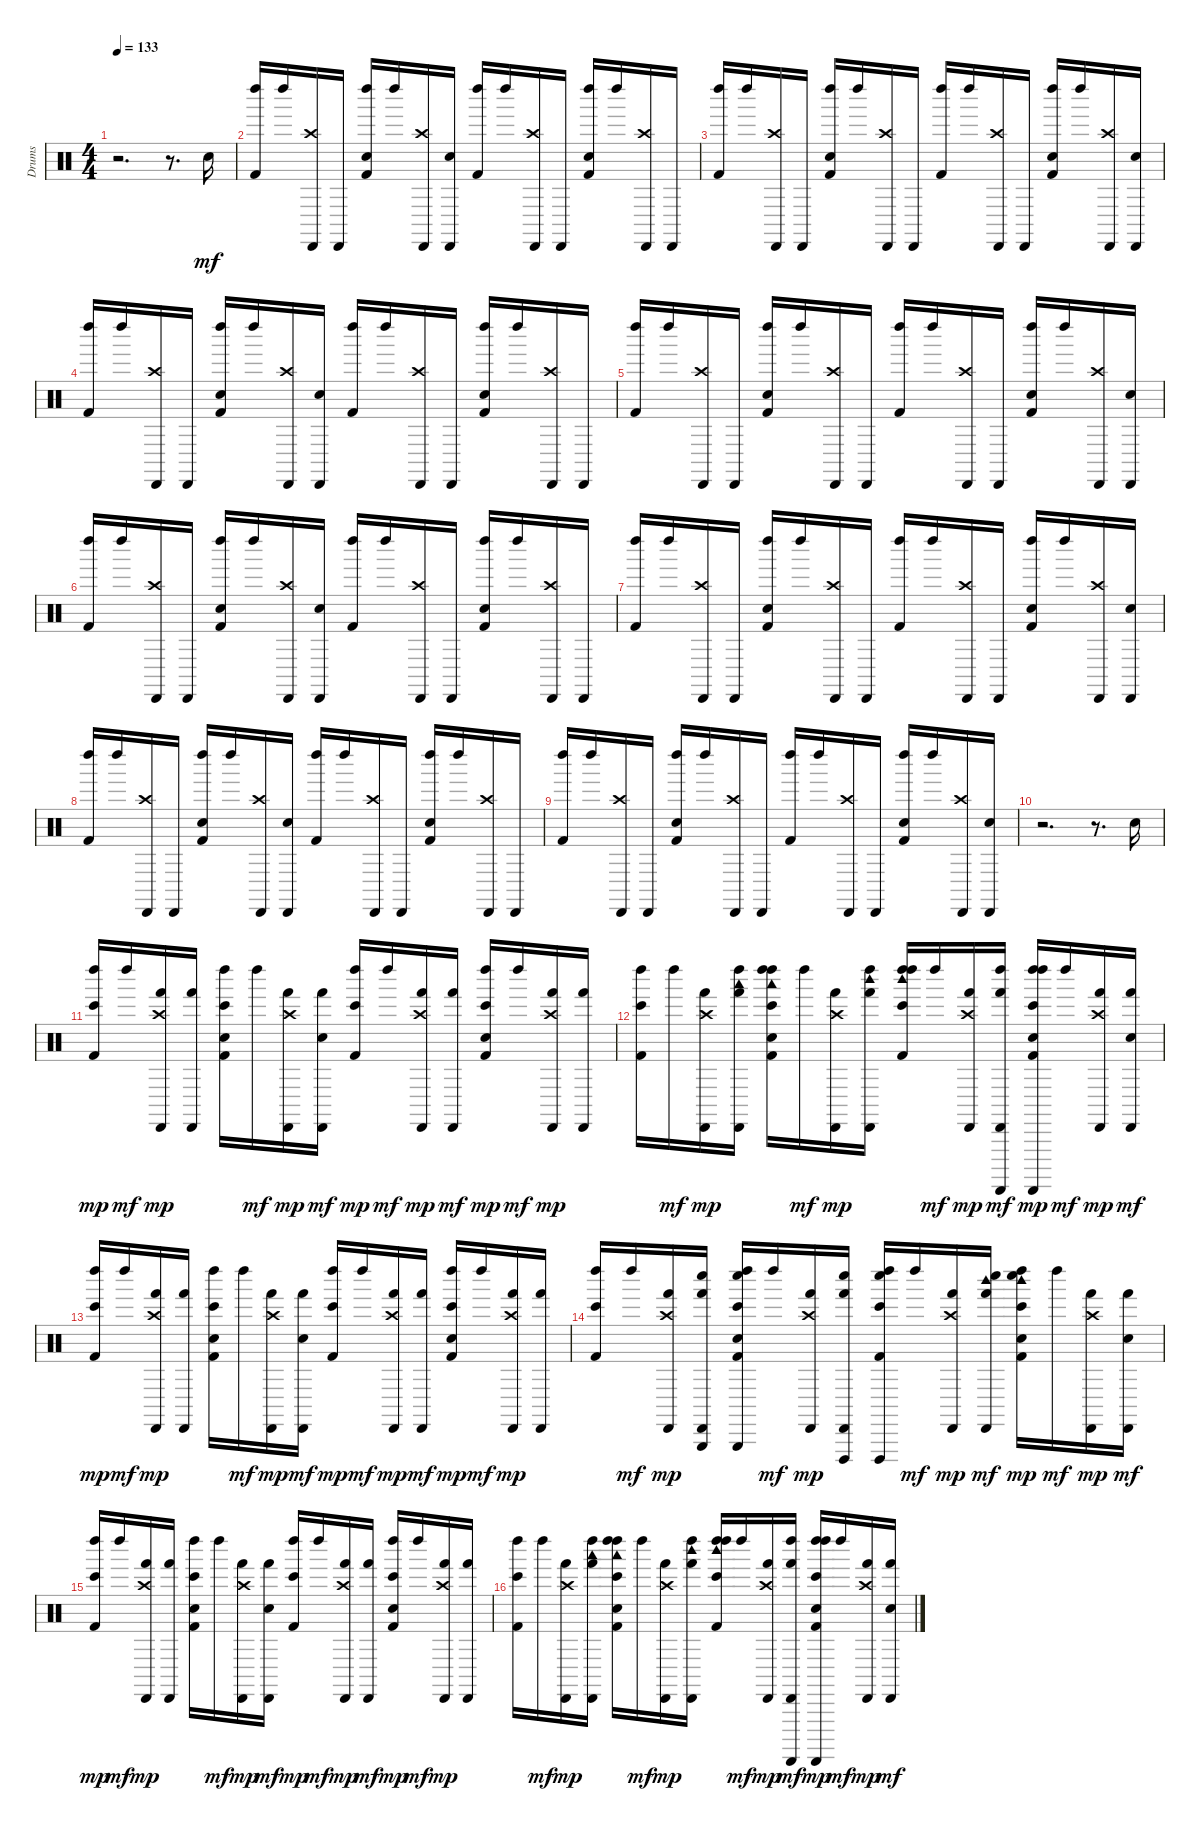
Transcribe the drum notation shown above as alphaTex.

\track ("Drums" "Drums") {instrument percussion}
\staff {score}
\articulation defaults
\ts (4 4)
\tempo 133
\clef neutral
\ks c
r.2{d dy mp} r.8{d} "Snare (hit) 2".16{dy mf volume 11} |
("Kick (hit) 2" "Left Maraca (hit)").16 "Left Maraca (hit)".16 ("Crash high (hit)" "Cabasa (hit)").16 "Cabasa (hit)".16 ("Kick (hit) 2" "Hand Clap (hit)" "Left Maraca (hit)").16 "Left Maraca (hit)".16 ("Crash high (hit)" "Cabasa (hit)").16 ("Cabasa (hit)" "Snare (hit) 2").16 ("Kick (hit) 2" "Left Maraca (hit)").16 "Left Maraca (hit)".16 ("Crash high (hit)" "Cabasa (hit)").16 "Cabasa (hit)".16 ("Kick (hit) 2" "Hand Clap (hit)" "Left Maraca (hit)").16 "Left Maraca (hit)".16 ("Crash high (hit)" "Cabasa (hit)").16 "Cabasa (hit)".16 |
("Kick (hit) 2" "Left Maraca (hit)").16 "Left Maraca (hit)".16 ("Crash high (hit)" "Cabasa (hit)").16 "Cabasa (hit)".16 ("Kick (hit) 2" "Hand Clap (hit)" "Left Maraca (hit)").16 "Left Maraca (hit)".16 ("Crash high (hit)" "Cabasa (hit)").16 "Cabasa (hit)".16 ("Kick (hit) 2" "Left Maraca (hit)").16 "Left Maraca (hit)".16 ("Crash high (hit)" "Cabasa (hit)").16 "Cabasa (hit)".16 ("Kick (hit) 2" "Hand Clap (hit)" "Left Maraca (hit)").16 "Left Maraca (hit)".16 ("Crash high (hit)" "Cabasa (hit)").16 ("Cabasa (hit)" "Snare (hit) 2").16 |
("Kick (hit) 2" "Left Maraca (hit)").16 "Left Maraca (hit)".16 ("Crash high (hit)" "Cabasa (hit)").16 "Cabasa (hit)".16 ("Kick (hit) 2" "Hand Clap (hit)" "Left Maraca (hit)").16 "Left Maraca (hit)".16 ("Crash high (hit)" "Cabasa (hit)").16 ("Cabasa (hit)" "Snare (hit) 2").16 ("Kick (hit) 2" "Left Maraca (hit)").16 "Left Maraca (hit)".16 ("Crash high (hit)" "Cabasa (hit)").16 "Cabasa (hit)".16 ("Kick (hit) 2" "Hand Clap (hit)" "Left Maraca (hit)").16 "Left Maraca (hit)".16 ("Crash high (hit)" "Cabasa (hit)").16 "Cabasa (hit)".16 |
("Kick (hit) 2" "Left Maraca (hit)").16 "Left Maraca (hit)".16 ("Crash high (hit)" "Cabasa (hit)").16 "Cabasa (hit)".16 ("Kick (hit) 2" "Hand Clap (hit)" "Left Maraca (hit)").16 "Left Maraca (hit)".16 ("Crash high (hit)" "Cabasa (hit)").16 "Cabasa (hit)".16 ("Kick (hit) 2" "Left Maraca (hit)").16 "Left Maraca (hit)".16 ("Crash high (hit)" "Cabasa (hit)").16 "Cabasa (hit)".16 ("Kick (hit) 2" "Hand Clap (hit)" "Left Maraca (hit)").16 "Left Maraca (hit)".16 ("Crash high (hit)" "Cabasa (hit)").16 ("Cabasa (hit)" "Snare (hit) 2").16 |
("Kick (hit) 2" "Left Maraca (hit)").16 "Left Maraca (hit)".16 ("Crash high (hit)" "Cabasa (hit)").16 "Cabasa (hit)".16 ("Kick (hit) 2" "Hand Clap (hit)" "Left Maraca (hit)").16 "Left Maraca (hit)".16 ("Crash high (hit)" "Cabasa (hit)").16 ("Cabasa (hit)" "Snare (hit) 2").16 ("Kick (hit) 2" "Left Maraca (hit)").16 "Left Maraca (hit)".16 ("Crash high (hit)" "Cabasa (hit)").16 "Cabasa (hit)".16 ("Kick (hit) 2" "Hand Clap (hit)" "Left Maraca (hit)").16 "Left Maraca (hit)".16 ("Crash high (hit)" "Cabasa (hit)").16 "Cabasa (hit)".16 |
("Kick (hit) 2" "Left Maraca (hit)").16 "Left Maraca (hit)".16 ("Crash high (hit)" "Cabasa (hit)").16 "Cabasa (hit)".16 ("Kick (hit) 2" "Hand Clap (hit)" "Left Maraca (hit)").16 "Left Maraca (hit)".16 ("Crash high (hit)" "Cabasa (hit)").16 "Cabasa (hit)".16 ("Kick (hit) 2" "Left Maraca (hit)").16 "Left Maraca (hit)".16 ("Crash high (hit)" "Cabasa (hit)").16 "Cabasa (hit)".16 ("Kick (hit) 2" "Hand Clap (hit)" "Left Maraca (hit)").16 "Left Maraca (hit)".16 ("Crash high (hit)" "Cabasa (hit)").16 ("Cabasa (hit)" "Snare (hit) 2").16 |
("Kick (hit) 2" "Left Maraca (hit)").16 "Left Maraca (hit)".16 ("Crash high (hit)" "Cabasa (hit)").16 "Cabasa (hit)".16 ("Kick (hit) 2" "Hand Clap (hit)" "Left Maraca (hit)").16 "Left Maraca (hit)".16 ("Crash high (hit)" "Cabasa (hit)").16 ("Cabasa (hit)" "Snare (hit) 2").16 ("Kick (hit) 2" "Left Maraca (hit)").16 "Left Maraca (hit)".16 ("Crash high (hit)" "Cabasa (hit)").16 "Cabasa (hit)".16 ("Kick (hit) 2" "Hand Clap (hit)" "Left Maraca (hit)").16 "Left Maraca (hit)".16 ("Crash high (hit)" "Cabasa (hit)").16 "Cabasa (hit)".16 |
("Kick (hit) 2" "Left Maraca (hit)").16 "Left Maraca (hit)".16 ("Crash high (hit)" "Cabasa (hit)").16 "Cabasa (hit)".16 ("Kick (hit) 2" "Hand Clap (hit)" "Left Maraca (hit)").16 "Left Maraca (hit)".16 ("Crash high (hit)" "Cabasa (hit)").16 "Cabasa (hit)".16 ("Kick (hit) 2" "Left Maraca (hit)").16 "Left Maraca (hit)".16 ("Crash high (hit)" "Cabasa (hit)").16 "Cabasa (hit)".16 ("Kick (hit) 2" "Hand Clap (hit)" "Left Maraca (hit)").16 "Left Maraca (hit)".16 ("Crash high (hit)" "Cabasa (hit)").16 ("Cabasa (hit)" "Snare (hit) 2").16 |
r.2{d} r.8{d} "Snare (hit) 2".16 |
("Kick (hit) 2" "Left Maraca (hit)" "Bongo High (hit)").16{dy mp} "Left Maraca (hit)".16{dy mf} ("Crash high (hit)" "Cabasa (hit)" "Hand (hit)").16{dy mp} ("Cabasa (hit)" "Hand (hit)").16 ("Kick (hit) 2" "Hand Clap (hit)" "Left Maraca (hit)" "Bongo High (hit)").16 "Left Maraca (hit)".16{dy mf} ("Crash high (hit)" "Cabasa (hit)" "Hand (hit)").16{dy mp} ("Cabasa (hit)" "Hand (hit)" "Snare (hit) 2").16{dy mf} ("Kick (hit) 2" "Left Maraca (hit)" "Bongo High (hit)").16{dy mp} "Left Maraca (hit)".16{dy mf} ("Crash high (hit)" "Cabasa (hit)" "Hand (hit)").16{dy mp} ("Hand (hit)" "Cabasa (hit)").16{dy mf} ("Kick (hit) 2" "Hand Clap (hit)" "Left Maraca (hit)" "Bongo High (hit)").16{dy mp} "Left Maraca (hit)".16{dy mf} ("Crash high (hit)" "Cabasa (hit)" "Hand (hit)").16{dy mp} ("Cabasa (hit)" "Hand (hit)").16 |
("Kick (hit) 2" "Left Maraca (hit)" "Bongo High (hit)").16 "Left Maraca (hit)".16{dy mf} ("Crash high (hit)" "Cabasa (hit)" "Hand (hit)").16{dy mp} ("Cabasa (hit)" "Hand (hit)" "Left Maraca (hit)" "Woodblock low (hit)").16 ("Kick (hit) 2" "Hand Clap (hit)" "Left Maraca (hit)" "Bongo High (hit)" "Left Maraca (hit)" "Woodblock low (hit)").16 "Left Maraca (hit)".16{dy mf} ("Crash high (hit)" "Cabasa (hit)" "Hand (hit)").16{dy mp} ("Cabasa (hit)" "Hand (hit)" "Left Maraca (hit)" "Woodblock high (hit)").16 ("Kick (hit) 2" "Left Maraca (hit)" "Bongo High (hit)" "Left Maraca (hit)" "Woodblock high (hit)").16 "Left Maraca (hit)".16{dy mf} ("Crash high (hit)" "Cabasa (hit)" "Hand (hit)").16{dy mp} ("Hand (hit)" "Left Maraca (hit)" "Guiro (scrap-return)" "Cabasa (hit)").16{dy mf} ("Kick (hit) 2" "Hand Clap (hit)" "Left Maraca (hit)" "Bongo High (hit)" "Left Maraca (hit)" "Guiro (scrap-return)").16{dy mp} "Left Maraca (hit)".16{dy mf} ("Crash high (hit)" "Cabasa (hit)" "Hand (hit)").16{dy mp} ("Cabasa (hit)" "Hand (hit)" "Snare (hit) 2").16{dy mf} |
("Kick (hit) 2" "Left Maraca (hit)" "Bongo High (hit)").16{dy mp} "Left Maraca (hit)".16{dy mf} ("Crash high (hit)" "Cabasa (hit)" "Hand (hit)").16{dy mp} ("Cabasa (hit)" "Hand (hit)").16 ("Kick (hit) 2" "Hand Clap (hit)" "Left Maraca (hit)" "Bongo High (hit)").16 "Left Maraca (hit)".16{dy mf} ("Crash high (hit)" "Cabasa (hit)" "Hand (hit)").16{dy mp} ("Cabasa (hit)" "Hand (hit)" "Snare (hit) 2").16{dy mf} ("Kick (hit) 2" "Left Maraca (hit)" "Bongo High (hit)").16{dy mp} "Left Maraca (hit)".16{dy mf} ("Crash high (hit)" "Cabasa (hit)" "Hand (hit)").16{dy mp} ("Hand (hit)" "Cabasa (hit)").16{dy mf} ("Kick (hit) 2" "Hand Clap (hit)" "Left Maraca (hit)" "Bongo High (hit)").16{dy mp} "Left Maraca (hit)".16{dy mf} ("Crash high (hit)" "Cabasa (hit)" "Hand (hit)").16{dy mp} ("Cabasa (hit)" "Hand (hit)").16 |
("Kick (hit) 2" "Left Maraca (hit)" "Bongo High (hit)").16 "Left Maraca (hit)".16{dy mf} ("Crash high (hit)" "Cabasa (hit)" "Hand (hit)").16{dy mp} ("Cabasa (hit)" "Hand (hit)" "Triangle (hit)" "Whistle low (hit)").16 ("Kick (hit) 2" "Hand Clap (hit)" "Left Maraca (hit)" "Bongo High (hit)" "Triangle (hit)" "Whistle low (hit)").16 "Left Maraca (hit)".16{dy mf} ("Crash high (hit)" "Cabasa (hit)" "Hand (hit)").16{dy mp} ("Cabasa (hit)" "Hand (hit)" "Cuica (open)" "Whistle low (hit)").16 ("Kick (hit) 2" "Left Maraca (hit)" "Bongo High (hit)" "Cuica (open)" "Whistle low (hit)").16 "Left Maraca (hit)".16{dy mf} ("Crash high (hit)" "Cabasa (hit)" "Hand (hit)").16{dy mp} ("Hand (hit)" "Woodblock high (hit)" "Whistle low (hit)" "Cabasa (hit)").16{dy mf} ("Kick (hit) 2" "Hand Clap (hit)" "Left Maraca (hit)" "Bongo High (hit)" "Woodblock high (hit)" "Whistle low (hit)").16{dy mp} "Left Maraca (hit)".16{dy mf} ("Crash high (hit)" "Cabasa (hit)" "Hand (hit)").16{dy mp} ("Cabasa (hit)" "Hand (hit)" "Snare (hit) 2").16{dy mf} |
("Kick (hit) 2" "Left Maraca (hit)" "Bongo High (hit)").16{dy mp} "Left Maraca (hit)".16{dy mf} ("Crash high (hit)" "Cabasa (hit)" "Hand (hit)").16{dy mp} ("Cabasa (hit)" "Hand (hit)").16 ("Kick (hit) 2" "Hand Clap (hit)" "Left Maraca (hit)" "Bongo High (hit)").16 "Left Maraca (hit)".16{dy mf} ("Crash high (hit)" "Cabasa (hit)" "Hand (hit)").16{dy mp} ("Cabasa (hit)" "Hand (hit)" "Snare (hit) 2").16{dy mf} ("Kick (hit) 2" "Left Maraca (hit)" "Bongo High (hit)").16{dy mp} "Left Maraca (hit)".16{dy mf} ("Crash high (hit)" "Cabasa (hit)" "Hand (hit)").16{dy mp} ("Hand (hit)" "Cabasa (hit)").16{dy mf} ("Kick (hit) 2" "Hand Clap (hit)" "Left Maraca (hit)" "Bongo High (hit)").16{dy mp} "Left Maraca (hit)".16{dy mf} ("Crash high (hit)" "Cabasa (hit)" "Hand (hit)").16{dy mp} ("Cabasa (hit)" "Hand (hit)").16 |
("Kick (hit) 2" "Left Maraca (hit)" "Bongo High (hit)").16 "Left Maraca (hit)".16{dy mf} ("Crash high (hit)" "Cabasa (hit)" "Hand (hit)").16{dy mp} ("Cabasa (hit)" "Hand (hit)" "Left Maraca (hit)" "Woodblock low (hit)").16 ("Kick (hit) 2" "Hand Clap (hit)" "Left Maraca (hit)" "Bongo High (hit)" "Left Maraca (hit)" "Woodblock low (hit)").16 "Left Maraca (hit)".16{dy mf} ("Crash high (hit)" "Cabasa (hit)" "Hand (hit)").16{dy mp} ("Cabasa (hit)" "Hand (hit)" "Left Maraca (hit)" "Woodblock high (hit)").16 ("Kick (hit) 2" "Left Maraca (hit)" "Bongo High (hit)" "Left Maraca (hit)" "Woodblock high (hit)").16 "Left Maraca (hit)".16{dy mf} ("Crash high (hit)" "Cabasa (hit)" "Hand (hit)").16{dy mp} ("Hand (hit)" "Left Maraca (hit)" "Guiro (scrap-return)" "Cabasa (hit)").16{dy mf} ("Kick (hit) 2" "Hand Clap (hit)" "Left Maraca (hit)" "Bongo High (hit)" "Left Maraca (hit)" "Guiro (scrap-return)").16{dy mp} "Left Maraca (hit)".16{dy mf} ("Crash high (hit)" "Cabasa (hit)" "Hand (hit)").16{dy mp} ("Cabasa (hit)" "Hand (hit)" "Snare (hit) 2").16{dy mf}
